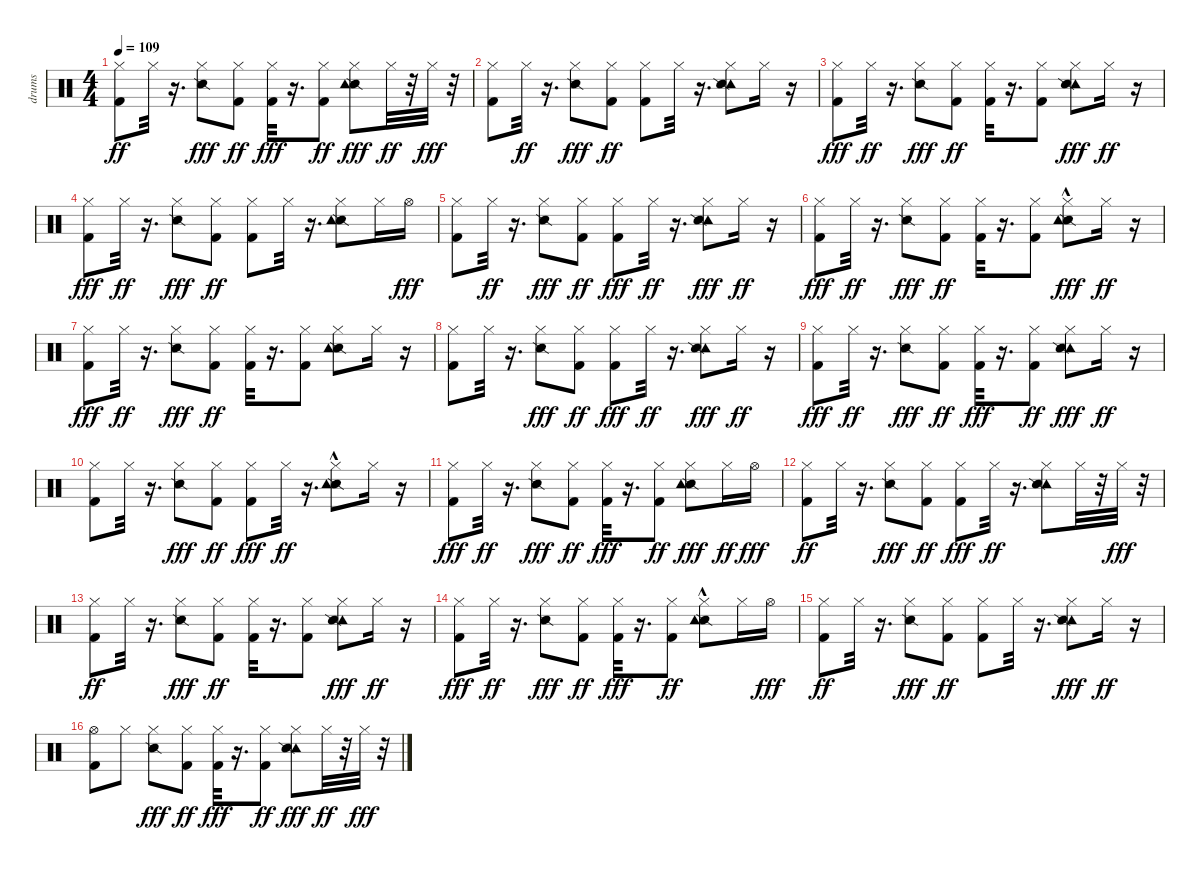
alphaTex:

\track ("drums" "drums") {instrument percussion}
\staff {score}
\articulation defaults
\ts (4 4)
\tempo 109
\clef neutral
\ks c
("Hi-Hat (closed)" "Kick (hit) 2").8{dy ff} "Hi-Hat (closed)".32 r.16{d} ("Hi-Hat (closed)" "Snare (side stick) 2").8{dy fff} ("Hi-Hat (closed)" "Kick (hit) 2").8{dy ff} ("Kick (hit) 2" "Hi-Hat (closed)").32{dy fff} r.16{d} ("Kick (hit) 2" "Hi-Hat (closed)").8{dy ff} ("Snare (side stick) 2" "Tambourine (hit)" "Hi-Hat (closed)").8{dy fff} "Hi-Hat (closed)".32{dy ff} r.32 "Hi-Hat (closed)".32{dy fff} r.32 |
("Kick (hit) 2" "Hi-Hat (closed)").8 "Hi-Hat (closed)".32{dy ff} r.16{d} ("Snare (side stick) 2" "Hi-Hat (closed)").8{dy fff} ("Hi-Hat (closed)" "Kick (hit) 2").8{dy ff} ("Hi-Hat (closed)" "Kick (hit) 2").8 "Hi-Hat (closed)".32 r.16{d} ("Hi-Hat (closed)" "Tambourine (hit)" "Snare (side stick) 2").8 "Hi-Hat (closed)".16 r.16 |
("Kick (hit) 2" "Hi-Hat (closed)").8{dy fff} "Hi-Hat (closed)".32{dy ff} r.16{d} ("Snare (side stick) 2" "Hi-Hat (closed)").8{dy fff} ("Kick (hit) 2" "Hi-Hat (closed)").8{dy ff} ("Hi-Hat (closed)" "Kick (hit) 2").32 r.16{d} ("Kick (hit) 2" "Hi-Hat (closed)").8 ("Tambourine (hit)" "Snare (side stick) 2" "Hi-Hat (closed)").8{dy fff} "Hi-Hat (closed)".16{dy ff} r.16 |
("Kick (hit) 2" "Hi-Hat (closed)").8{dy fff} "Hi-Hat (closed)".32{dy ff} r.16{d} ("Snare (side stick) 2" "Hi-Hat (closed)").8{dy fff} ("Hi-Hat (closed)" "Kick (hit) 2").8{dy ff} ("Hi-Hat (closed)" "Kick (hit) 2").8 "Hi-Hat (closed)".32 r.16{d} ("Hi-Hat (closed)" "Snare (side stick) 2" "Tambourine (hit)").8 "Hi-Hat (closed)".16 "Hi-Hat (open)".16{dy fff} |
("Kick (hit) 2" "Hi-Hat (closed)").8 "Hi-Hat (closed)".32{dy ff} r.16{d} ("Hi-Hat (closed)" "Snare (side stick) 2").8{dy fff} ("Kick (hit) 2" "Hi-Hat (closed)").8{dy ff} ("Kick (hit) 2" "Hi-Hat (closed)").8{dy fff} "Hi-Hat (closed)".32{dy ff} r.16{d} ("Tambourine (hit)" "Hi-Hat (closed)" "Snare (side stick) 2").8{dy fff} "Hi-Hat (closed)".16{dy ff} r.16 |
("Kick (hit) 2" "Hi-Hat (closed)").8{dy fff} "Hi-Hat (closed)".32{dy ff} r.16{d} ("Hi-Hat (closed)" "Snare (side stick) 2").8{dy fff} ("Hi-Hat (closed)" "Kick (hit) 2").8{dy ff} ("Hi-Hat (closed)" "Kick (hit) 2").32 r.16{d} ("Kick (hit) 2" "Hi-Hat (closed)").8 ("Snare (side stick) 2" "Tambourine (hit)"{hac} "Hi-Hat (closed)").8{dy fff} "Hi-Hat (closed)".16{dy ff} r.16 |
("Kick (hit) 2" "Hi-Hat (closed)").8{dy fff} "Hi-Hat (closed)".32{dy ff} r.16{d} ("Snare (side stick) 2" "Hi-Hat (closed)").8{dy fff} ("Hi-Hat (closed)" "Kick (hit) 2").8{dy ff} ("Hi-Hat (closed)" "Kick (hit) 2").32 r.16{d} ("Kick (hit) 2" "Hi-Hat (closed)").8 ("Snare (side stick) 2" "Hi-Hat (closed)" "Tambourine (hit)").8 "Hi-Hat (closed)".16 r.16 |
("Hi-Hat (closed)" "Kick (hit) 2").8 "Hi-Hat (closed)".32 r.16{d} ("Snare (side stick) 2" "Hi-Hat (closed)").8{dy fff} ("Hi-Hat (closed)" "Kick (hit) 2").8{dy ff} ("Kick (hit) 2" "Hi-Hat (closed)").8{dy fff} "Hi-Hat (closed)".32{dy ff} r.16{d} ("Tambourine (hit)" "Snare (side stick) 2" "Hi-Hat (closed)").8{dy fff} "Hi-Hat (closed)".16{dy ff} r.16 |
("Kick (hit) 2" "Hi-Hat (closed)").8{dy fff} "Hi-Hat (closed)".32{dy ff} r.16{d} ("Snare (side stick) 2" "Hi-Hat (closed)").8{dy fff} ("Hi-Hat (closed)" "Kick (hit) 2").8{dy ff} ("Kick (hit) 2" "Hi-Hat (closed)").32{dy fff} r.16{d} ("Kick (hit) 2" "Hi-Hat (closed)").8{dy ff} ("Tambourine (hit)" "Hi-Hat (closed)" "Snare (side stick) 2").8{dy fff} "Hi-Hat (closed)".16{dy ff} r.16 |
("Hi-Hat (closed)" "Kick (hit) 2").8 "Hi-Hat (closed)".32 r.16{d} ("Snare (side stick) 2" "Hi-Hat (closed)").8{dy fff} ("Kick (hit) 2" "Hi-Hat (closed)").8{dy ff} ("Kick (hit) 2" "Hi-Hat (closed)").8{dy fff} "Hi-Hat (closed)".32{dy ff} r.16{d} ("Hi-Hat (closed)" "Snare (side stick) 2" "Tambourine (hit)"{hac}).8 "Hi-Hat (closed)".16 r.16 |
("Kick (hit) 2" "Hi-Hat (closed)").8{dy fff} "Hi-Hat (closed)".32{dy ff} r.16{d} ("Snare (side stick) 2" "Hi-Hat (closed)").8{dy fff} ("Hi-Hat (closed)" "Kick (hit) 2").8{dy ff} ("Kick (hit) 2" "Hi-Hat (closed)").32{dy fff} r.16{d} ("Hi-Hat (closed)" "Kick (hit) 2").8{dy ff} ("Snare (side stick) 2" "Tambourine (hit)" "Hi-Hat (closed)").8{dy fff} "Hi-Hat (closed)".16{dy ff} "Hi-Hat (open)".16{dy fff} |
("Hi-Hat (closed)" "Kick (hit) 2").8{dy ff} "Hi-Hat (closed)".32 r.16{d} ("Hi-Hat (closed)" "Snare (side stick) 2").8{dy fff} ("Hi-Hat (closed)" "Kick (hit) 2").8{dy ff} ("Kick (hit) 2" "Hi-Hat (closed)").8{dy fff} "Hi-Hat (closed)".32{dy ff} r.16{d} ("Hi-Hat (closed)" "Tambourine (hit)" "Snare (side stick) 2").8 "Hi-Hat (closed)".32 r.32 "Hi-Hat (closed)".32{dy fff} r.32 |
("Hi-Hat (closed)" "Kick (hit) 2").8{dy ff} "Hi-Hat (closed)".32 r.16{d} ("Hi-Hat (closed)" "Snare (side stick) 2").8{dy fff} ("Hi-Hat (closed)" "Kick (hit) 2").8{dy ff} ("Hi-Hat (closed)" "Kick (hit) 2").32 r.16{d} ("Hi-Hat (closed)" "Kick (hit) 2").8 ("Tambourine (hit)" "Hi-Hat (closed)" "Snare (side stick) 2").8{dy fff} "Hi-Hat (closed)".16{dy ff} r.16 |
("Kick (hit) 2" "Hi-Hat (closed)").8{dy fff} "Hi-Hat (closed)".32{dy ff} r.16{d} ("Hi-Hat (closed)" "Snare (side stick) 2").8{dy fff} ("Hi-Hat (closed)" "Kick (hit) 2").8{dy ff} ("Kick (hit) 2" "Hi-Hat (closed)").32{dy fff} r.16{d} ("Kick (hit) 2" "Hi-Hat (closed)").8{dy ff} ("Hi-Hat (closed)" "Snare (side stick) 2" "Tambourine (hit)"{hac}).8 "Hi-Hat (closed)".16 "Hi-Hat (open)".16{dy fff} |
("Hi-Hat (closed)" "Kick (hit) 2").8{dy ff} "Hi-Hat (closed)".32 r.16{d} ("Hi-Hat (closed)" "Snare (side stick) 2").8{dy fff} ("Kick (hit) 2" "Hi-Hat (closed)").8{dy ff} ("Hi-Hat (closed)" "Kick (hit) 2").8 "Hi-Hat (closed)".32 r.16{d} ("Tambourine (hit)" "Snare (side stick) 2" "Hi-Hat (closed)").8{dy fff} "Hi-Hat (closed)".16{dy ff} r.16 |
("Hi-Hat (open)" "Kick (hit) 2").8 "Hi-Hat (closed)".8 ("Hi-Hat (closed)" "Snare (side stick) 2").8{dy fff} ("Kick (hit) 2" "Hi-Hat (closed)").8{dy ff} ("Kick (hit) 2" "Hi-Hat (closed)").32{dy fff} r.16{d} ("Hi-Hat (closed)" "Kick (hit) 2").8{dy ff} ("Tambourine (hit)" "Hi-Hat (closed)" "Snare (side stick) 2").8{dy fff} "Hi-Hat (closed)".32{dy ff} r.32 "Hi-Hat (closed)".32{dy fff} r.32
